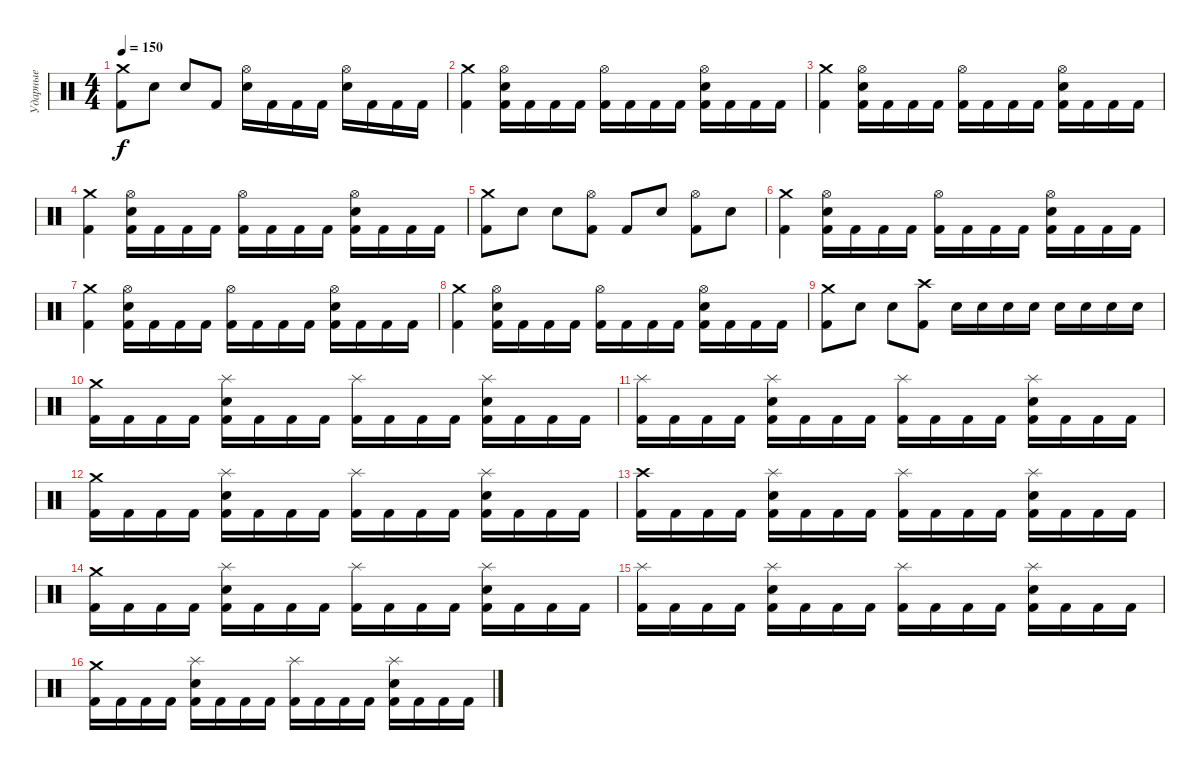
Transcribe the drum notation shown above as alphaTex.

\track ("Ударные" "Ударные") {instrument percussion}
\staff {score}
\articulation defaults
\ts (4 4)
\tempo 150
\clef neutral
\ks c
("Crash medium (hit)" "Kick (hit) 2").8{dy f} "Electric Snare (hit)".8 "Electric Snare (hit)".8 "Kick (hit) 2".8 ("Hi-Hat (open)" "Electric Snare (hit)").16 "Kick (hit) 2".16 "Kick (hit) 2".16 "Kick (hit) 2".16 ("Hi-Hat (open)" "Electric Snare (hit)").16 "Kick (hit) 2".16 "Kick (hit) 2".16 "Kick (hit) 2".16 |
("Crash medium (hit)" "Kick (hit) 2").4 ("Hi-Hat (open)" "Electric Snare (hit)" "Kick (hit) 2").16 "Kick (hit) 2".16 "Kick (hit) 2".16 "Kick (hit) 2".16 ("Hi-Hat (open)" "Kick (hit) 2").16 "Kick (hit) 2".16 "Kick (hit) 2".16 "Kick (hit) 2".16 ("Hi-Hat (open)" "Electric Snare (hit)" "Kick (hit) 2").16 "Kick (hit) 2".16 "Kick (hit) 2".16 "Kick (hit) 2".16 |
("Crash medium (hit)" "Kick (hit) 2").4 ("Hi-Hat (open)" "Electric Snare (hit)" "Kick (hit) 2").16 "Kick (hit) 2".16 "Kick (hit) 2".16 "Kick (hit) 2".16 ("Hi-Hat (open)" "Kick (hit) 2").16 "Kick (hit) 2".16 "Kick (hit) 2".16 "Kick (hit) 2".16 ("Hi-Hat (open)" "Electric Snare (hit)" "Kick (hit) 2").16 "Kick (hit) 2".16 "Kick (hit) 2".16 "Kick (hit) 2".16 |
("Crash medium (hit)" "Kick (hit) 2").4 ("Hi-Hat (open)" "Electric Snare (hit)" "Kick (hit) 2").16 "Kick (hit) 2".16 "Kick (hit) 2".16 "Kick (hit) 2".16 ("Hi-Hat (open)" "Kick (hit) 2").16 "Kick (hit) 2".16 "Kick (hit) 2".16 "Kick (hit) 2".16 ("Hi-Hat (open)" "Electric Snare (hit)" "Kick (hit) 2").16 "Kick (hit) 2".16 "Kick (hit) 2".16 "Kick (hit) 2".16 |
("Crash medium (hit)" "Kick (hit) 2").8 "Electric Snare (hit)".8 "Electric Snare (hit)".8 ("Hi-Hat (open)" "Kick (hit) 2").8 "Kick (hit) 2".8 "Electric Snare (hit)".8 ("Hi-Hat (open)" "Kick (hit) 2").8 "Electric Snare (hit)".8 |
("Crash medium (hit)" "Kick (hit) 2").4 ("Hi-Hat (open)" "Electric Snare (hit)" "Kick (hit) 2").16 "Kick (hit) 2".16 "Kick (hit) 2".16 "Kick (hit) 2".16 ("Hi-Hat (open)" "Kick (hit) 2").16 "Kick (hit) 2".16 "Kick (hit) 2".16 "Kick (hit) 2".16 ("Hi-Hat (open)" "Electric Snare (hit)" "Kick (hit) 2").16 "Kick (hit) 2".16 "Kick (hit) 2".16 "Kick (hit) 2".16 |
("Crash medium (hit)" "Kick (hit) 2").4 ("Hi-Hat (open)" "Electric Snare (hit)" "Kick (hit) 2").16 "Kick (hit) 2".16 "Kick (hit) 2".16 "Kick (hit) 2".16 ("Hi-Hat (open)" "Kick (hit) 2").16 "Kick (hit) 2".16 "Kick (hit) 2".16 "Kick (hit) 2".16 ("Hi-Hat (open)" "Electric Snare (hit)" "Kick (hit) 2").16 "Kick (hit) 2".16 "Kick (hit) 2".16 "Kick (hit) 2".16 |
("Crash medium (hit)" "Kick (hit) 2").4 ("Hi-Hat (open)" "Electric Snare (hit)" "Kick (hit) 2").16 "Kick (hit) 2".16 "Kick (hit) 2".16 "Kick (hit) 2".16 ("Hi-Hat (open)" "Kick (hit) 2").16 "Kick (hit) 2".16 "Kick (hit) 2".16 "Kick (hit) 2".16 ("Hi-Hat (open)" "Electric Snare (hit)" "Kick (hit) 2").16 "Kick (hit) 2".16 "Kick (hit) 2".16 "Kick (hit) 2".16 |
("Crash medium (hit)" "Kick (hit) 2").8 "Electric Snare (hit)".8 "Electric Snare (hit)".8 ("Crash high (hit)" "Kick (hit) 2").8 "Electric Snare (hit)".16 "Electric Snare (hit)".16 "Electric Snare (hit)".16 "Electric Snare (hit)".16 "Electric Snare (hit)".16 "Electric Snare (hit)".16 "Electric Snare (hit)".16 "Electric Snare (hit)".16 |
("Crash medium (hit)" "Kick (hit) 2").16 "Kick (hit) 2".16 "Kick (hit) 2".16 "Kick (hit) 2".16 ("Splash (hit)" "Electric Snare (hit)" "Kick (hit) 2").16 "Kick (hit) 2".16 "Kick (hit) 2".16 "Kick (hit) 2".16 ("Splash (hit)" "Kick (hit) 2").16 "Kick (hit) 2".16 "Kick (hit) 2".16 "Kick (hit) 2".16 ("Splash (hit)" "Electric Snare (hit)" "Kick (hit) 2").16 "Kick (hit) 2".16 "Kick (hit) 2".16 "Kick (hit) 2".16 |
("Splash (hit)" "Kick (hit) 2").16 "Kick (hit) 2".16 "Kick (hit) 2".16 "Kick (hit) 2".16 ("Splash (hit)" "Electric Snare (hit)" "Kick (hit) 2").16 "Kick (hit) 2".16 "Kick (hit) 2".16 "Kick (hit) 2".16 ("Splash (hit)" "Kick (hit) 2").16 "Kick (hit) 2".16 "Kick (hit) 2".16 "Kick (hit) 2".16 ("Splash (hit)" "Electric Snare (hit)" "Kick (hit) 2").16 "Kick (hit) 2".16 "Kick (hit) 2".16 "Kick (hit) 2".16 |
("Crash medium (hit)" "Kick (hit) 2").16 "Kick (hit) 2".16 "Kick (hit) 2".16 "Kick (hit) 2".16 ("Splash (hit)" "Electric Snare (hit)" "Kick (hit) 2").16 "Kick (hit) 2".16 "Kick (hit) 2".16 "Kick (hit) 2".16 ("Splash (hit)" "Kick (hit) 2").16 "Kick (hit) 2".16 "Kick (hit) 2".16 "Kick (hit) 2".16 ("Splash (hit)" "Electric Snare (hit)" "Kick (hit) 2").16 "Kick (hit) 2".16 "Kick (hit) 2".16 "Kick (hit) 2".16 |
("Crash high (hit)" "Kick (hit) 2").16 "Kick (hit) 2".16 "Kick (hit) 2".16 "Kick (hit) 2".16 ("Splash (hit)" "Electric Snare (hit)" "Kick (hit) 2").16 "Kick (hit) 2".16 "Kick (hit) 2".16 "Kick (hit) 2".16 ("Splash (hit)" "Kick (hit) 2").16 "Kick (hit) 2".16 "Kick (hit) 2".16 "Kick (hit) 2".16 ("Splash (hit)" "Electric Snare (hit)" "Kick (hit) 2").16 "Kick (hit) 2".16 "Kick (hit) 2".16 "Kick (hit) 2".16 |
("Crash medium (hit)" "Kick (hit) 2").16 "Kick (hit) 2".16 "Kick (hit) 2".16 "Kick (hit) 2".16 ("Splash (hit)" "Electric Snare (hit)" "Kick (hit) 2").16 "Kick (hit) 2".16 "Kick (hit) 2".16 "Kick (hit) 2".16 ("Splash (hit)" "Kick (hit) 2").16 "Kick (hit) 2".16 "Kick (hit) 2".16 "Kick (hit) 2".16 ("Splash (hit)" "Electric Snare (hit)" "Kick (hit) 2").16 "Kick (hit) 2".16 "Kick (hit) 2".16 "Kick (hit) 2".16 |
("Splash (hit)" "Kick (hit) 2").16 "Kick (hit) 2".16 "Kick (hit) 2".16 "Kick (hit) 2".16 ("Splash (hit)" "Electric Snare (hit)" "Kick (hit) 2").16 "Kick (hit) 2".16 "Kick (hit) 2".16 "Kick (hit) 2".16 ("Splash (hit)" "Kick (hit) 2").16 "Kick (hit) 2".16 "Kick (hit) 2".16 "Kick (hit) 2".16 ("Splash (hit)" "Electric Snare (hit)" "Kick (hit) 2").16 "Kick (hit) 2".16 "Kick (hit) 2".16 "Kick (hit) 2".16 |
("Crash medium (hit)" "Kick (hit) 2").16 "Kick (hit) 2".16 "Kick (hit) 2".16 "Kick (hit) 2".16 ("Splash (hit)" "Electric Snare (hit)" "Kick (hit) 2").16 "Kick (hit) 2".16 "Kick (hit) 2".16 "Kick (hit) 2".16 ("Splash (hit)" "Kick (hit) 2").16 "Kick (hit) 2".16 "Kick (hit) 2".16 "Kick (hit) 2".16 ("Splash (hit)" "Electric Snare (hit)" "Kick (hit) 2").16 "Kick (hit) 2".16 "Kick (hit) 2".16 "Kick (hit) 2".16
